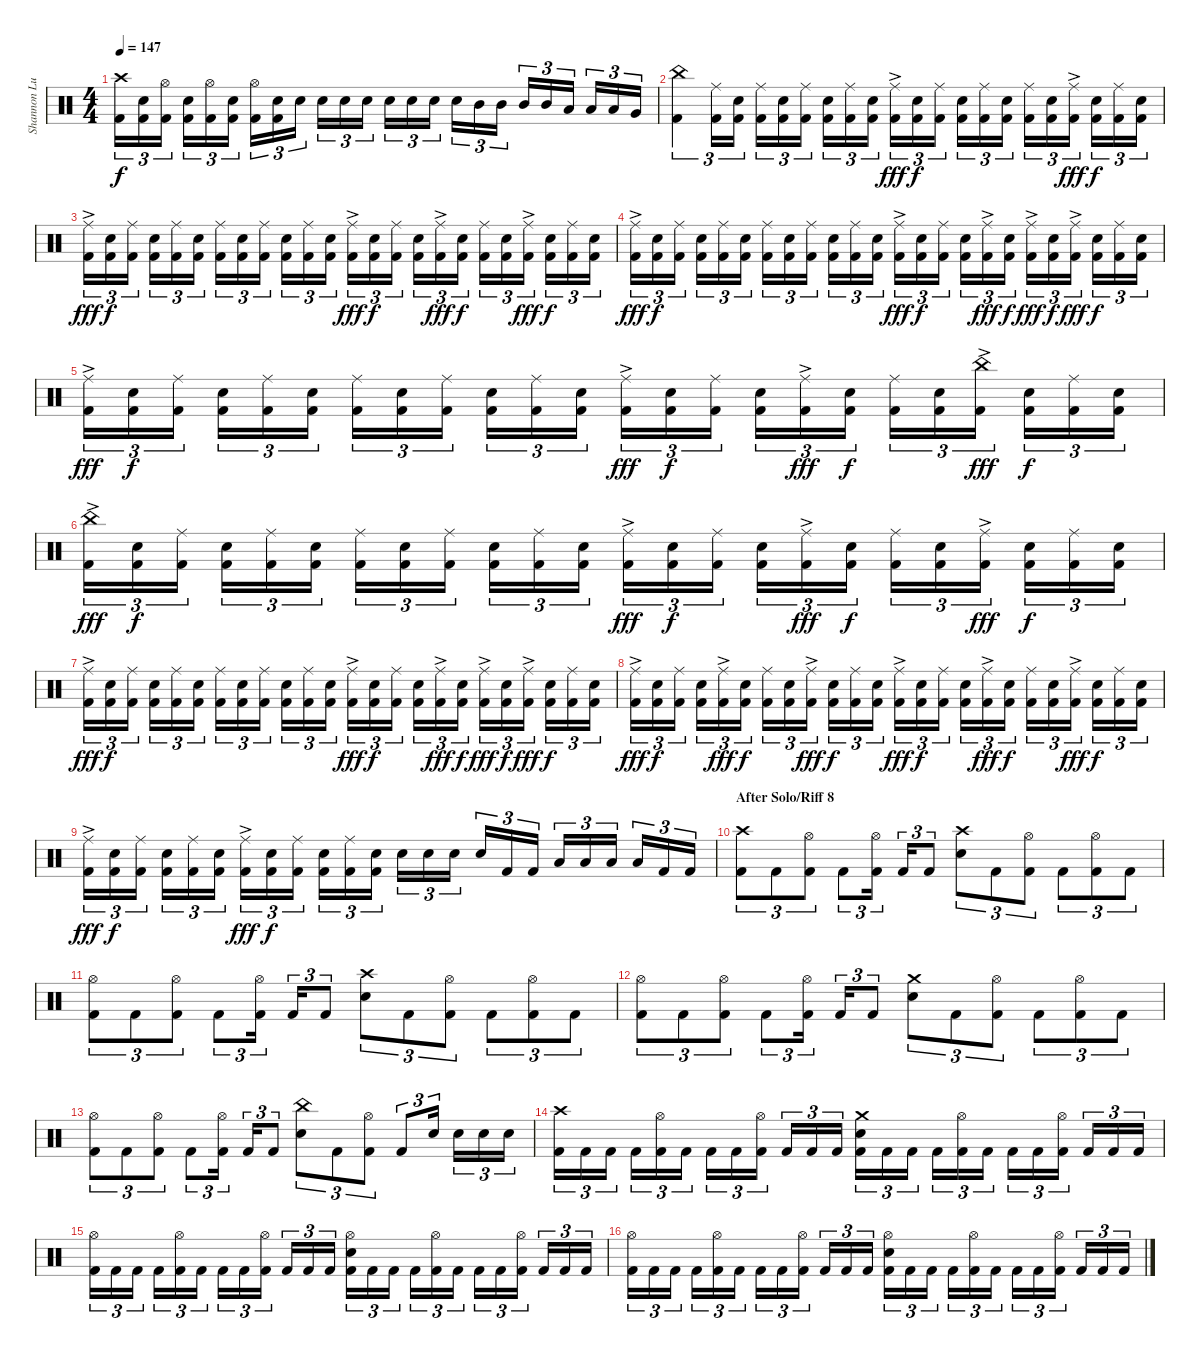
\track ("Shannon Lucas (Drums)" "Shannon Lu") {instrument percussion}
\staff {score}
\articulation defaults
\ts (4 4)
\tempo 147
\clef neutral
\ks c
("Crash high (hit)" "Kick (hit) 2").16{tu (3 2) dy f} ("Snare (hit) 2" "Kick (hit) 2").16{tu (3 2)} ("Hi-Hat (open)" "Kick (hit) 2").16{tu (3 2)} ("Snare (hit) 2" "Kick (hit) 2").16{tu (3 2)} ("Hi-Hat (open)" "Kick (hit) 2").16{tu (3 2)} ("Snare (hit) 2" "Kick (hit) 2").16{tu (3 2)} ("Hi-Hat (open)" "Kick (hit) 2").16{tu (3 2)} ("Kick (hit) 2" "Snare (hit) 2").16{tu (3 2)} "Snare (hit) 2".16{tu (3 2)} "Snare (hit) 2".16{tu (3 2)} "Snare (hit) 2".16{tu (3 2)} "Snare (hit) 2".16{tu (3 2)} "Snare (hit) 2".16{tu (3 2)} "Snare (hit) 2".16{tu (3 2)} "Snare (hit) 2".16{tu (3 2)} "Snare (hit) 2".16{tu (3 2)} "Mid Tom (hit)".16{tu (3 2)} "Mid Tom (hit)".16{tu (3 2)} "Mid Tom (hit)".16{tu (3 2)} "Mid Tom (hit)".16{tu (3 2)} "Low Tom (hit)".16{tu (3 2)} "Low Tom (hit)".16{tu (3 2)} "Low Tom (hit)".16{tu (3 2)} "Very Low Tom (hit)".16{tu (3 2)} |
("China (hit)" "Kick (hit) 2").4{tu (3 2)} ("Ride (middle)" "Kick (hit) 2").16{tu (3 2)} ("Snare (hit) 2" "Kick (hit) 2").16{tu (3 2)} ("Ride (middle)" "Kick (hit) 2").16{tu (3 2)} ("Snare (hit) 2" "Kick (hit) 2").16{tu (3 2)} ("Ride (middle)" "Kick (hit) 2").16{tu (3 2)} ("Snare (hit) 2" "Kick (hit) 2").16{tu (3 2)} ("Ride (middle)" "Kick (hit) 2").16{tu (3 2)} ("Snare (hit) 2" "Kick (hit) 2").16{tu (3 2)} ("Ride (middle)"{ac} "Kick (hit) 2").16{tu (3 2) dy fff} ("Snare (hit) 2" "Kick (hit) 2").16{tu (3 2) dy f} ("Ride (middle)" "Kick (hit) 2").16{tu (3 2)} ("Snare (hit) 2" "Kick (hit) 2").16{tu (3 2)} ("Ride (middle)" "Kick (hit) 2").16{tu (3 2)} ("Snare (hit) 2" "Kick (hit) 2").16{tu (3 2)} ("Ride (middle)" "Kick (hit) 2").16{tu (3 2)} ("Snare (hit) 2" "Kick (hit) 2").16{tu (3 2)} ("Ride (middle)"{ac} "Kick (hit) 2").16{tu (3 2) dy fff} ("Snare (hit) 2" "Kick (hit) 2").16{tu (3 2) dy f} ("Ride (middle)" "Kick (hit) 2").16{tu (3 2)} ("Snare (hit) 2" "Kick (hit) 2").16{tu (3 2)} |
("Ride (middle)"{ac} "Kick (hit) 2").16{tu (3 2) dy fff} ("Snare (hit) 2" "Kick (hit) 2").16{tu (3 2) dy f} ("Ride (middle)" "Kick (hit) 2").16{tu (3 2)} ("Snare (hit) 2" "Kick (hit) 2").16{tu (3 2)} ("Ride (middle)" "Kick (hit) 2").16{tu (3 2)} ("Snare (hit) 2" "Kick (hit) 2").16{tu (3 2)} ("Ride (middle)" "Kick (hit) 2").16{tu (3 2)} ("Snare (hit) 2" "Kick (hit) 2").16{tu (3 2)} ("Ride (middle)" "Kick (hit) 2").16{tu (3 2)} ("Snare (hit) 2" "Kick (hit) 2").16{tu (3 2)} ("Ride (middle)" "Kick (hit) 2").16{tu (3 2)} ("Snare (hit) 2" "Kick (hit) 2").16{tu (3 2)} ("Ride (middle)"{ac} "Kick (hit) 2").16{tu (3 2) dy fff} ("Snare (hit) 2" "Kick (hit) 2").16{tu (3 2) dy f} ("Ride (middle)" "Kick (hit) 2").16{tu (3 2)} ("Snare (hit) 2" "Kick (hit) 2").16{tu (3 2)} ("Ride (middle)"{ac} "Kick (hit) 2").16{tu (3 2) dy fff} ("Snare (hit) 2" "Kick (hit) 2").16{tu (3 2) dy f} ("Ride (middle)" "Kick (hit) 2").16{tu (3 2)} ("Snare (hit) 2" "Kick (hit) 2").16{tu (3 2)} ("Ride (middle)"{ac} "Kick (hit) 2").16{tu (3 2) dy fff} ("Snare (hit) 2" "Kick (hit) 2").16{tu (3 2) dy f} ("Ride (middle)" "Kick (hit) 2").16{tu (3 2)} ("Snare (hit) 2" "Kick (hit) 2").16{tu (3 2)} |
("Ride (middle)"{ac} "Kick (hit) 2").16{tu (3 2) dy fff} ("Snare (hit) 2" "Kick (hit) 2").16{tu (3 2) dy f} ("Ride (middle)" "Kick (hit) 2").16{tu (3 2)} ("Snare (hit) 2" "Kick (hit) 2").16{tu (3 2)} ("Ride (middle)" "Kick (hit) 2").16{tu (3 2)} ("Snare (hit) 2" "Kick (hit) 2").16{tu (3 2)} ("Ride (middle)" "Kick (hit) 2").16{tu (3 2)} ("Snare (hit) 2" "Kick (hit) 2").16{tu (3 2)} ("Ride (middle)" "Kick (hit) 2").16{tu (3 2)} ("Snare (hit) 2" "Kick (hit) 2").16{tu (3 2)} ("Ride (middle)" "Kick (hit) 2").16{tu (3 2)} ("Snare (hit) 2" "Kick (hit) 2").16{tu (3 2)} ("Ride (middle)"{ac} "Kick (hit) 2").16{tu (3 2) dy fff} ("Snare (hit) 2" "Kick (hit) 2").16{tu (3 2) dy f} ("Ride (middle)" "Kick (hit) 2").16{tu (3 2)} ("Snare (hit) 2" "Kick (hit) 2").16{tu (3 2)} ("Ride (middle)"{ac} "Kick (hit) 2").16{tu (3 2) dy fff} ("Snare (hit) 2" "Kick (hit) 2").16{tu (3 2) dy f} ("Ride (middle)"{ac} "Kick (hit) 2").16{tu (3 2) dy fff} ("Snare (hit) 2" "Kick (hit) 2").16{tu (3 2) dy f} ("Ride (middle)"{ac} "Kick (hit) 2").16{tu (3 2) dy fff} ("Snare (hit) 2" "Kick (hit) 2").16{tu (3 2) dy f} ("Ride (middle)" "Kick (hit) 2").16{tu (3 2)} ("Snare (hit) 2" "Kick (hit) 2").16{tu (3 2)} |
("Ride (middle)"{ac} "Kick (hit) 2").16{tu (3 2) dy fff} ("Snare (hit) 2" "Kick (hit) 2").16{tu (3 2) dy f} ("Ride (middle)" "Kick (hit) 2").16{tu (3 2)} ("Snare (hit) 2" "Kick (hit) 2").16{tu (3 2)} ("Ride (middle)" "Kick (hit) 2").16{tu (3 2)} ("Snare (hit) 2" "Kick (hit) 2").16{tu (3 2)} ("Ride (middle)" "Kick (hit) 2").16{tu (3 2)} ("Snare (hit) 2" "Kick (hit) 2").16{tu (3 2)} ("Ride (middle)" "Kick (hit) 2").16{tu (3 2)} ("Snare (hit) 2" "Kick (hit) 2").16{tu (3 2)} ("Ride (middle)" "Kick (hit) 2").16{tu (3 2)} ("Snare (hit) 2" "Kick (hit) 2").16{tu (3 2)} ("Ride (middle)"{ac} "Kick (hit) 2").16{tu (3 2) dy fff} ("Snare (hit) 2" "Kick (hit) 2").16{tu (3 2) dy f} ("Ride (middle)" "Kick (hit) 2").16{tu (3 2)} ("Snare (hit) 2" "Kick (hit) 2").16{tu (3 2)} ("Ride (middle)"{ac} "Kick (hit) 2").16{tu (3 2) dy fff} ("Snare (hit) 2" "Kick (hit) 2").16{tu (3 2) dy f} ("Ride (middle)" "Kick (hit) 2").16{tu (3 2)} ("Snare (hit) 2" "Kick (hit) 2").16{tu (3 2)} ("China (hit)"{ac} "Kick (hit) 2").16{tu (3 2) dy fff} ("Snare (hit) 2" "Kick (hit) 2").16{tu (3 2) dy f} ("Ride (middle)" "Kick (hit) 2").16{tu (3 2)} ("Snare (hit) 2" "Kick (hit) 2").16{tu (3 2)} |
("China (hit)"{ac} "Kick (hit) 2").16{tu (3 2) dy fff} ("Snare (hit) 2" "Kick (hit) 2").16{tu (3 2) dy f} ("Ride (middle)" "Kick (hit) 2").16{tu (3 2)} ("Snare (hit) 2" "Kick (hit) 2").16{tu (3 2)} ("Ride (middle)" "Kick (hit) 2").16{tu (3 2)} ("Snare (hit) 2" "Kick (hit) 2").16{tu (3 2)} ("Ride (middle)" "Kick (hit) 2").16{tu (3 2)} ("Snare (hit) 2" "Kick (hit) 2").16{tu (3 2)} ("Ride (middle)" "Kick (hit) 2").16{tu (3 2)} ("Snare (hit) 2" "Kick (hit) 2").16{tu (3 2)} ("Ride (middle)" "Kick (hit) 2").16{tu (3 2)} ("Snare (hit) 2" "Kick (hit) 2").16{tu (3 2)} ("Ride (middle)"{ac} "Kick (hit) 2").16{tu (3 2) dy fff} ("Snare (hit) 2" "Kick (hit) 2").16{tu (3 2) dy f} ("Ride (middle)" "Kick (hit) 2").16{tu (3 2)} ("Snare (hit) 2" "Kick (hit) 2").16{tu (3 2)} ("Ride (middle)"{ac} "Kick (hit) 2").16{tu (3 2) dy fff} ("Snare (hit) 2" "Kick (hit) 2").16{tu (3 2) dy f} ("Ride (middle)" "Kick (hit) 2").16{tu (3 2)} ("Snare (hit) 2" "Kick (hit) 2").16{tu (3 2)} ("Ride (middle)"{ac} "Kick (hit) 2").16{tu (3 2) dy fff} ("Snare (hit) 2" "Kick (hit) 2").16{tu (3 2) dy f} ("Ride (middle)" "Kick (hit) 2").16{tu (3 2)} ("Snare (hit) 2" "Kick (hit) 2").16{tu (3 2)} |
("Ride (middle)"{ac} "Kick (hit) 2").16{tu (3 2) dy fff} ("Snare (hit) 2" "Kick (hit) 2").16{tu (3 2) dy f} ("Ride (middle)" "Kick (hit) 2").16{tu (3 2)} ("Snare (hit) 2" "Kick (hit) 2").16{tu (3 2)} ("Ride (middle)" "Kick (hit) 2").16{tu (3 2)} ("Snare (hit) 2" "Kick (hit) 2").16{tu (3 2)} ("Ride (middle)" "Kick (hit) 2").16{tu (3 2)} ("Snare (hit) 2" "Kick (hit) 2").16{tu (3 2)} ("Ride (middle)" "Kick (hit) 2").16{tu (3 2)} ("Snare (hit) 2" "Kick (hit) 2").16{tu (3 2)} ("Ride (middle)" "Kick (hit) 2").16{tu (3 2)} ("Snare (hit) 2" "Kick (hit) 2").16{tu (3 2)} ("Ride (middle)"{ac} "Kick (hit) 2").16{tu (3 2) dy fff} ("Snare (hit) 2" "Kick (hit) 2").16{tu (3 2) dy f} ("Ride (middle)" "Kick (hit) 2").16{tu (3 2)} ("Snare (hit) 2" "Kick (hit) 2").16{tu (3 2)} ("Ride (middle)"{ac} "Kick (hit) 2").16{tu (3 2) dy fff} ("Snare (hit) 2" "Kick (hit) 2").16{tu (3 2) dy f} ("Ride (middle)"{ac} "Kick (hit) 2").16{tu (3 2) dy fff} ("Snare (hit) 2" "Kick (hit) 2").16{tu (3 2) dy f} ("Ride (middle)"{ac} "Kick (hit) 2").16{tu (3 2) dy fff} ("Snare (hit) 2" "Kick (hit) 2").16{tu (3 2) dy f} ("Ride (middle)" "Kick (hit) 2").16{tu (3 2)} ("Snare (hit) 2" "Kick (hit) 2").16{tu (3 2)} |
("Ride (middle)"{ac} "Kick (hit) 2").16{tu (3 2) dy fff} ("Snare (hit) 2" "Kick (hit) 2").16{tu (3 2) dy f} ("Ride (middle)" "Kick (hit) 2").16{tu (3 2)} ("Snare (hit) 2" "Kick (hit) 2").16{tu (3 2)} ("Ride (middle)"{ac} "Kick (hit) 2").16{tu (3 2) dy fff} ("Snare (hit) 2" "Kick (hit) 2").16{tu (3 2) dy f} ("Ride (middle)" "Kick (hit) 2").16{tu (3 2)} ("Snare (hit) 2" "Kick (hit) 2").16{tu (3 2)} ("Ride (middle)"{ac} "Kick (hit) 2").16{tu (3 2) dy fff} ("Snare (hit) 2" "Kick (hit) 2").16{tu (3 2) dy f} ("Ride (middle)" "Kick (hit) 2").16{tu (3 2)} ("Snare (hit) 2" "Kick (hit) 2").16{tu (3 2)} ("Ride (middle)"{ac} "Kick (hit) 2").16{tu (3 2) dy fff} ("Snare (hit) 2" "Kick (hit) 2").16{tu (3 2) dy f} ("Ride (middle)" "Kick (hit) 2").16{tu (3 2)} ("Snare (hit) 2" "Kick (hit) 2").16{tu (3 2)} ("Ride (middle)"{ac} "Kick (hit) 2").16{tu (3 2) dy fff} ("Snare (hit) 2" "Kick (hit) 2").16{tu (3 2) dy f} ("Ride (middle)" "Kick (hit) 2").16{tu (3 2)} ("Snare (hit) 2" "Kick (hit) 2").16{tu (3 2)} ("Ride (middle)"{ac} "Kick (hit) 2").16{tu (3 2) dy fff} ("Snare (hit) 2" "Kick (hit) 2").16{tu (3 2) dy f} ("Ride (middle)" "Kick (hit) 2").16{tu (3 2)} ("Snare (hit) 2" "Kick (hit) 2").16{tu (3 2)} |
("Ride (middle)"{ac} "Kick (hit) 2").16{tu (3 2) dy fff} ("Snare (hit) 2" "Kick (hit) 2").16{tu (3 2) dy f} ("Ride (middle)" "Kick (hit) 2").16{tu (3 2)} ("Snare (hit) 2" "Kick (hit) 2").16{tu (3 2)} ("Ride (middle)" "Kick (hit) 2").16{tu (3 2)} ("Snare (hit) 2" "Kick (hit) 2").16{tu (3 2)} ("Ride (middle)"{ac} "Kick (hit) 2").16{tu (3 2) dy fff} ("Snare (hit) 2" "Kick (hit) 2").16{tu (3 2) dy f} ("Ride (middle)" "Kick (hit) 2").16{tu (3 2)} ("Snare (hit) 2" "Kick (hit) 2").16{tu (3 2)} ("Ride (middle)" "Kick (hit) 2").16{tu (3 2)} ("Snare (hit) 2" "Kick (hit) 2").16{tu (3 2)} "Snare (hit) 2".16{tu (3 2)} "Snare (hit) 2".16{tu (3 2)} "Snare (hit) 2".16{tu (3 2)} "Snare (hit) 2".16{tu (3 2)} "Kick (hit) 2".16{tu (3 2)} "Kick (hit) 2".16{tu (3 2)} "Low Tom (hit)".16{tu (3 2)} "Low Tom (hit)".16{tu (3 2)} "Low Tom (hit)".16{tu (3 2)} "Low Tom (hit)".16{tu (3 2)} "Kick (hit) 2".16{tu (3 2)} "Kick (hit) 2".16{tu (3 2)} |
\section ("" "After Solo/Riff 8")
("Crash high (hit)" "Kick (hit) 2").8{tu (3 2)} "Kick (hit) 2".8{tu (3 2)} ("Hi-Hat (open)" "Kick (hit) 2").8{tu (3 2)} "Kick (hit) 2".8{tu (3 2)} ("Hi-Hat (open)" "Kick (hit) 2").16{tu (3 2)} "Kick (hit) 2".16{tu (3 2)} "Kick (hit) 2".8{tu (3 2)} ("Crash high (hit)" "Snare (hit) 2").8{tu (3 2)} "Kick (hit) 2".8{tu (3 2)} ("Hi-Hat (open)" "Kick (hit) 2").8{tu (3 2)} "Kick (hit) 2".8{tu (3 2)} ("Hi-Hat (open)" "Kick (hit) 2").8{tu (3 2)} "Kick (hit) 2".8{tu (3 2)} |
("Hi-Hat (open)" "Kick (hit) 2").8{tu (3 2)} "Kick (hit) 2".8{tu (3 2)} ("Hi-Hat (open)" "Kick (hit) 2").8{tu (3 2)} "Kick (hit) 2".8{tu (3 2)} ("Hi-Hat (open)" "Kick (hit) 2").16{tu (3 2)} "Kick (hit) 2".16{tu (3 2)} "Kick (hit) 2".8{tu (3 2)} ("Crash high (hit)" "Snare (hit) 2").8{tu (3 2)} "Kick (hit) 2".8{tu (3 2)} ("Hi-Hat (open)" "Kick (hit) 2").8{tu (3 2)} "Kick (hit) 2".8{tu (3 2)} ("Hi-Hat (open)" "Kick (hit) 2").8{tu (3 2)} "Kick (hit) 2".8{tu (3 2)} |
("Hi-Hat (open)" "Kick (hit) 2").8{tu (3 2)} "Kick (hit) 2".8{tu (3 2)} ("Hi-Hat (open)" "Kick (hit) 2").8{tu (3 2)} "Kick (hit) 2".8{tu (3 2)} ("Hi-Hat (open)" "Kick (hit) 2").16{tu (3 2)} "Kick (hit) 2".16{tu (3 2)} "Kick (hit) 2".8{tu (3 2)} ("Crash medium (hit)" "Snare (hit) 2").8{tu (3 2)} "Kick (hit) 2".8{tu (3 2)} ("Hi-Hat (open)" "Kick (hit) 2").8{tu (3 2)} "Kick (hit) 2".8{tu (3 2)} ("Hi-Hat (open)" "Kick (hit) 2").8{tu (3 2)} "Kick (hit) 2".8{tu (3 2)} |
("Hi-Hat (open)" "Kick (hit) 2").8{tu (3 2)} "Kick (hit) 2".8{tu (3 2)} ("Hi-Hat (open)" "Kick (hit) 2").8{tu (3 2)} "Kick (hit) 2".8{tu (3 2)} ("Hi-Hat (open)" "Kick (hit) 2").16{tu (3 2)} "Kick (hit) 2".16{tu (3 2)} "Kick (hit) 2".8{tu (3 2)} ("China (hit)" "Snare (hit) 2").8{tu (3 2)} "Kick (hit) 2".8{tu (3 2)} ("Hi-Hat (open)" "Kick (hit) 2").8{tu (3 2)} "Kick (hit) 2".8{tu (3 2)} "Snare (hit) 2".16{tu (3 2)} "Snare (hit) 2".16{tu (3 2)} "Snare (hit) 2".16{tu (3 2)} "Snare (hit) 2".16{tu (3 2)} |
("Crash high (hit)" "Kick (hit) 2").16{tu (3 2)} "Kick (hit) 2".16{tu (3 2)} "Kick (hit) 2".16{tu (3 2)} "Kick (hit) 2".16{tu (3 2)} ("Hi-Hat (open)" "Kick (hit) 2").16{tu (3 2)} "Kick (hit) 2".16{tu (3 2)} "Kick (hit) 2".16{tu (3 2)} "Kick (hit) 2".16{tu (3 2)} ("Hi-Hat (open)" "Kick (hit) 2").16{tu (3 2)} "Kick (hit) 2".16{tu (3 2)} "Kick (hit) 2".16{tu (3 2)} "Kick (hit) 2".16{tu (3 2)} ("Crash medium (hit)" "Snare (hit) 2" "Kick (hit) 2").16{tu (3 2)} "Kick (hit) 2".16{tu (3 2)} "Kick (hit) 2".16{tu (3 2)} "Kick (hit) 2".16{tu (3 2)} ("Hi-Hat (open)" "Kick (hit) 2").16{tu (3 2)} "Kick (hit) 2".16{tu (3 2)} "Kick (hit) 2".16{tu (3 2)} "Kick (hit) 2".16{tu (3 2)} ("Hi-Hat (open)" "Kick (hit) 2").16{tu (3 2)} "Kick (hit) 2".16{tu (3 2)} "Kick (hit) 2".16{tu (3 2)} "Kick (hit) 2".16{tu (3 2)} |
("Hi-Hat (open)" "Kick (hit) 2").16{tu (3 2)} "Kick (hit) 2".16{tu (3 2)} "Kick (hit) 2".16{tu (3 2)} "Kick (hit) 2".16{tu (3 2)} ("Hi-Hat (open)" "Kick (hit) 2").16{tu (3 2)} "Kick (hit) 2".16{tu (3 2)} "Kick (hit) 2".16{tu (3 2)} "Kick (hit) 2".16{tu (3 2)} ("Hi-Hat (open)" "Kick (hit) 2").16{tu (3 2)} "Kick (hit) 2".16{tu (3 2)} "Kick (hit) 2".16{tu (3 2)} "Kick (hit) 2".16{tu (3 2)} ("Hi-Hat (open)" "Snare (hit) 2" "Kick (hit) 2").16{tu (3 2)} "Kick (hit) 2".16{tu (3 2)} "Kick (hit) 2".16{tu (3 2)} "Kick (hit) 2".16{tu (3 2)} ("Hi-Hat (open)" "Kick (hit) 2").16{tu (3 2)} "Kick (hit) 2".16{tu (3 2)} "Kick (hit) 2".16{tu (3 2)} "Kick (hit) 2".16{tu (3 2)} ("Hi-Hat (open)" "Kick (hit) 2").16{tu (3 2)} "Kick (hit) 2".16{tu (3 2)} "Kick (hit) 2".16{tu (3 2)} "Kick (hit) 2".16{tu (3 2)} |
("Hi-Hat (open)" "Kick (hit) 2").16{tu (3 2)} "Kick (hit) 2".16{tu (3 2)} "Kick (hit) 2".16{tu (3 2)} "Kick (hit) 2".16{tu (3 2)} ("Hi-Hat (open)" "Kick (hit) 2").16{tu (3 2)} "Kick (hit) 2".16{tu (3 2)} "Kick (hit) 2".16{tu (3 2)} "Kick (hit) 2".16{tu (3 2)} ("Hi-Hat (open)" "Kick (hit) 2").16{tu (3 2)} "Kick (hit) 2".16{tu (3 2)} "Kick (hit) 2".16{tu (3 2)} "Kick (hit) 2".16{tu (3 2)} ("Hi-Hat (open)" "Snare (hit) 2" "Kick (hit) 2").16{tu (3 2)} "Kick (hit) 2".16{tu (3 2)} "Kick (hit) 2".16{tu (3 2)} "Kick (hit) 2".16{tu (3 2)} ("Hi-Hat (open)" "Kick (hit) 2").16{tu (3 2)} "Kick (hit) 2".16{tu (3 2)} "Kick (hit) 2".16{tu (3 2)} "Kick (hit) 2".16{tu (3 2)} ("Hi-Hat (open)" "Kick (hit) 2").16{tu (3 2)} "Kick (hit) 2".16{tu (3 2)} "Kick (hit) 2".16{tu (3 2)} "Kick (hit) 2".16{tu (3 2)}
